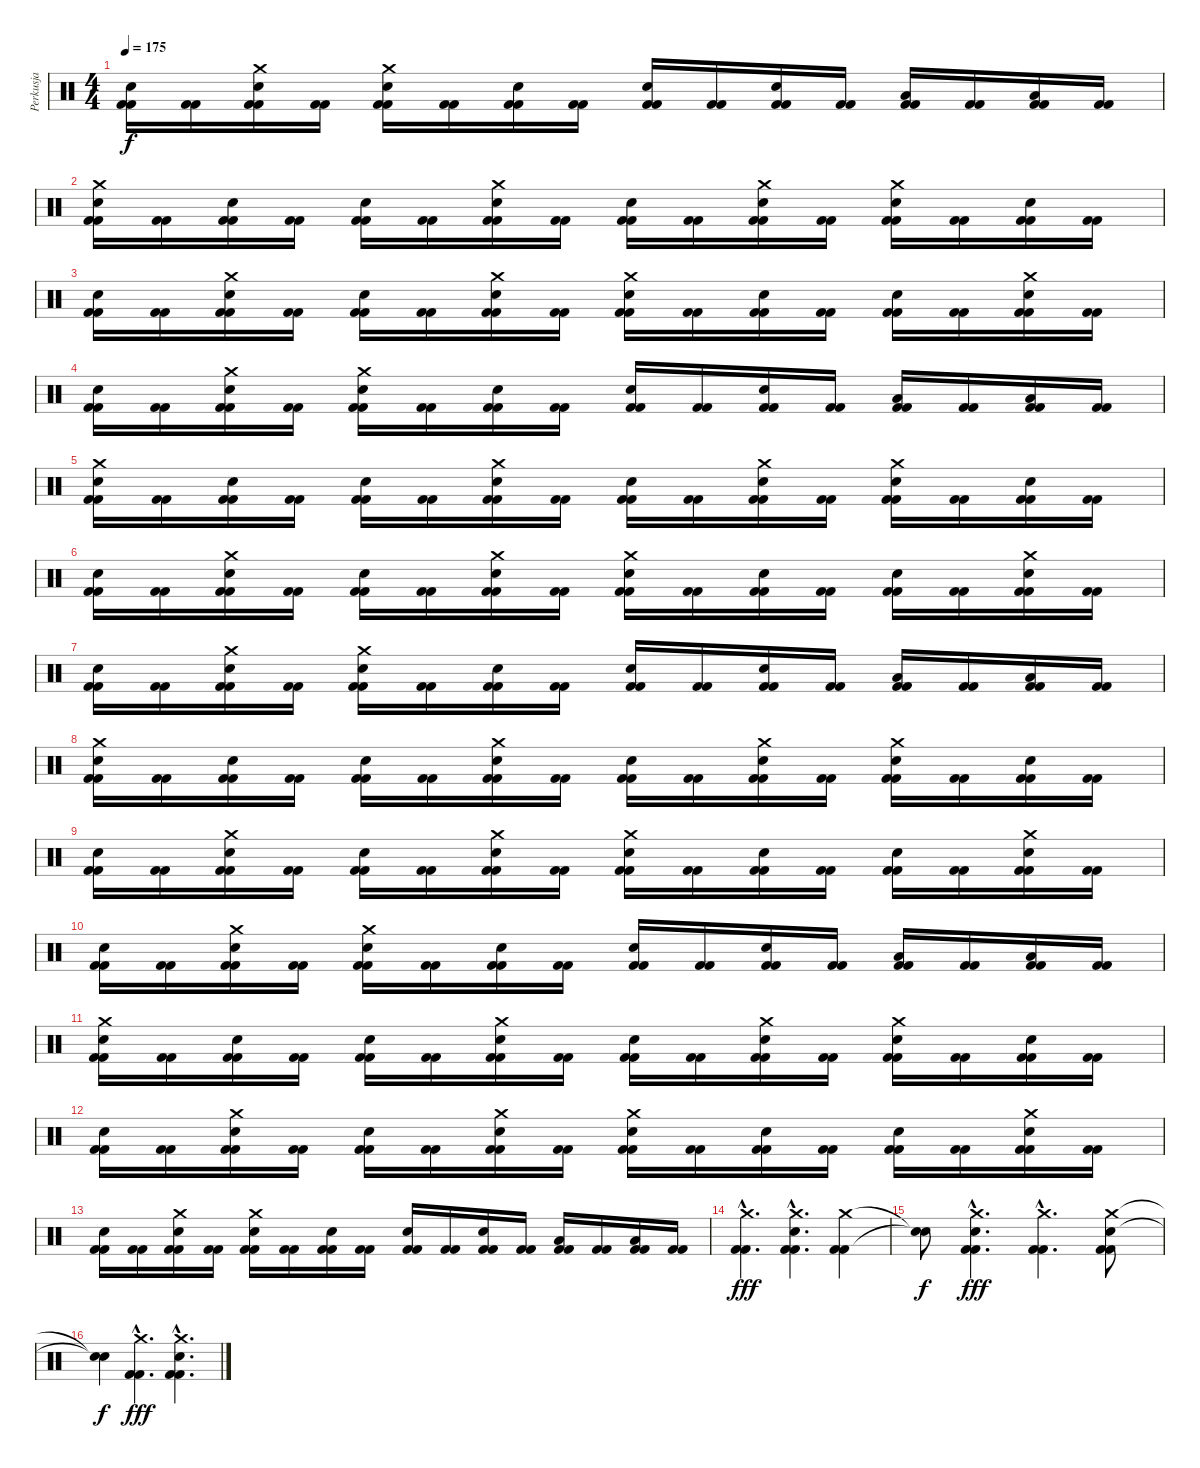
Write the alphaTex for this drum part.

\track ("Perkusja" "Perkusja") {instrument percussion}
\staff {score}
\articulation defaults
\ts (4 4)
\tempo 175
\clef neutral
\ks c
("Snare (hit) 2" "Kick (hit) 2" "Kick (hit) 2").16{dy f} ("Kick (hit) 2" "Kick (hit) 2").16 ("Crash medium (hit)" "Snare (hit) 2" "Kick (hit) 2" "Kick (hit) 2").16 ("Kick (hit) 2" "Kick (hit) 2").16 ("Crash medium (hit)" "Snare (hit) 2" "Kick (hit) 2" "Kick (hit) 2").16 ("Kick (hit) 2" "Kick (hit) 2").16 ("Snare (hit) 2" "Kick (hit) 2" "Kick (hit) 2").16 ("Kick (hit) 2" "Kick (hit) 2").16 ("Electric Snare (hit)" "Kick (hit) 2" "Kick (hit) 2").16 ("Kick (hit) 2" "Kick (hit) 2").16 ("Electric Snare (hit)" "Kick (hit) 2" "Kick (hit) 2").16 ("Kick (hit) 2" "Kick (hit) 2").16 ("Low Tom (hit)" "Kick (hit) 2" "Kick (hit) 2").16 ("Kick (hit) 2" "Kick (hit) 2").16 ("Low Tom (hit)" "Kick (hit) 2" "Kick (hit) 2").16 ("Kick (hit) 2" "Kick (hit) 2").16 |
("Crash medium (hit)" "Snare (hit) 2" "Kick (hit) 2" "Kick (hit) 2").16 ("Kick (hit) 2" "Kick (hit) 2").16 ("Snare (hit) 2" "Kick (hit) 2" "Kick (hit) 2").16 ("Kick (hit) 2" "Kick (hit) 2").16 ("Snare (hit) 2" "Kick (hit) 2" "Kick (hit) 2").16 ("Kick (hit) 2" "Kick (hit) 2").16 ("Crash medium (hit)" "Snare (hit) 2" "Kick (hit) 2" "Kick (hit) 2").16 ("Kick (hit) 2" "Kick (hit) 2").16 ("Snare (hit) 2" "Kick (hit) 2" "Kick (hit) 2").16 ("Kick (hit) 2" "Kick (hit) 2").16 ("Crash medium (hit)" "Snare (hit) 2" "Kick (hit) 2" "Kick (hit) 2").16 ("Kick (hit) 2" "Kick (hit) 2").16 ("Crash medium (hit)" "Snare (hit) 2" "Kick (hit) 2" "Kick (hit) 2").16 ("Kick (hit) 2" "Kick (hit) 2").16 ("Snare (hit) 2" "Kick (hit) 2" "Kick (hit) 2").16 ("Kick (hit) 2" "Kick (hit) 2").16 |
("Snare (hit) 2" "Kick (hit) 2" "Kick (hit) 2").16 ("Kick (hit) 2" "Kick (hit) 2").16 ("Crash medium (hit)" "Snare (hit) 2" "Kick (hit) 2" "Kick (hit) 2").16 ("Kick (hit) 2" "Kick (hit) 2").16 ("Snare (hit) 2" "Kick (hit) 2" "Kick (hit) 2").16 ("Kick (hit) 2" "Kick (hit) 2").16 ("Crash medium (hit)" "Snare (hit) 2" "Kick (hit) 2" "Kick (hit) 2").16 ("Kick (hit) 2" "Kick (hit) 2").16 ("Crash medium (hit)" "Snare (hit) 2" "Kick (hit) 2" "Kick (hit) 2").16 ("Kick (hit) 2" "Kick (hit) 2").16 ("Snare (hit) 2" "Kick (hit) 2" "Kick (hit) 2").16 ("Kick (hit) 2" "Kick (hit) 2").16 ("Snare (hit) 2" "Kick (hit) 2" "Kick (hit) 2").16 ("Kick (hit) 2" "Kick (hit) 2").16 ("Crash medium (hit)" "Snare (hit) 2" "Kick (hit) 2" "Kick (hit) 2").16 ("Kick (hit) 2" "Kick (hit) 2").16 |
("Snare (hit) 2" "Kick (hit) 2" "Kick (hit) 2").16 ("Kick (hit) 2" "Kick (hit) 2").16 ("Crash medium (hit)" "Snare (hit) 2" "Kick (hit) 2" "Kick (hit) 2").16 ("Kick (hit) 2" "Kick (hit) 2").16 ("Crash medium (hit)" "Snare (hit) 2" "Kick (hit) 2" "Kick (hit) 2").16 ("Kick (hit) 2" "Kick (hit) 2").16 ("Snare (hit) 2" "Kick (hit) 2" "Kick (hit) 2").16 ("Kick (hit) 2" "Kick (hit) 2").16 ("Electric Snare (hit)" "Kick (hit) 2" "Kick (hit) 2").16 ("Kick (hit) 2" "Kick (hit) 2").16 ("Electric Snare (hit)" "Kick (hit) 2" "Kick (hit) 2").16 ("Kick (hit) 2" "Kick (hit) 2").16 ("Low Tom (hit)" "Kick (hit) 2" "Kick (hit) 2").16 ("Kick (hit) 2" "Kick (hit) 2").16 ("Low Tom (hit)" "Kick (hit) 2" "Kick (hit) 2").16 ("Kick (hit) 2" "Kick (hit) 2").16 |
("Crash medium (hit)" "Snare (hit) 2" "Kick (hit) 2" "Kick (hit) 2").16 ("Kick (hit) 2" "Kick (hit) 2").16 ("Snare (hit) 2" "Kick (hit) 2" "Kick (hit) 2").16 ("Kick (hit) 2" "Kick (hit) 2").16 ("Snare (hit) 2" "Kick (hit) 2" "Kick (hit) 2").16 ("Kick (hit) 2" "Kick (hit) 2").16 ("Crash medium (hit)" "Snare (hit) 2" "Kick (hit) 2" "Kick (hit) 2").16 ("Kick (hit) 2" "Kick (hit) 2").16 ("Snare (hit) 2" "Kick (hit) 2" "Kick (hit) 2").16 ("Kick (hit) 2" "Kick (hit) 2").16 ("Crash medium (hit)" "Snare (hit) 2" "Kick (hit) 2" "Kick (hit) 2").16 ("Kick (hit) 2" "Kick (hit) 2").16 ("Crash medium (hit)" "Snare (hit) 2" "Kick (hit) 2" "Kick (hit) 2").16 ("Kick (hit) 2" "Kick (hit) 2").16 ("Snare (hit) 2" "Kick (hit) 2" "Kick (hit) 2").16 ("Kick (hit) 2" "Kick (hit) 2").16 |
("Snare (hit) 2" "Kick (hit) 2" "Kick (hit) 2").16 ("Kick (hit) 2" "Kick (hit) 2").16 ("Crash medium (hit)" "Snare (hit) 2" "Kick (hit) 2" "Kick (hit) 2").16 ("Kick (hit) 2" "Kick (hit) 2").16 ("Snare (hit) 2" "Kick (hit) 2" "Kick (hit) 2").16 ("Kick (hit) 2" "Kick (hit) 2").16 ("Crash medium (hit)" "Snare (hit) 2" "Kick (hit) 2" "Kick (hit) 2").16 ("Kick (hit) 2" "Kick (hit) 2").16 ("Crash medium (hit)" "Snare (hit) 2" "Kick (hit) 2" "Kick (hit) 2").16 ("Kick (hit) 2" "Kick (hit) 2").16 ("Snare (hit) 2" "Kick (hit) 2" "Kick (hit) 2").16 ("Kick (hit) 2" "Kick (hit) 2").16 ("Snare (hit) 2" "Kick (hit) 2" "Kick (hit) 2").16 ("Kick (hit) 2" "Kick (hit) 2").16 ("Crash medium (hit)" "Snare (hit) 2" "Kick (hit) 2" "Kick (hit) 2").16 ("Kick (hit) 2" "Kick (hit) 2").16 |
("Snare (hit) 2" "Kick (hit) 2" "Kick (hit) 2").16 ("Kick (hit) 2" "Kick (hit) 2").16 ("Crash medium (hit)" "Snare (hit) 2" "Kick (hit) 2" "Kick (hit) 2").16 ("Kick (hit) 2" "Kick (hit) 2").16 ("Crash medium (hit)" "Snare (hit) 2" "Kick (hit) 2" "Kick (hit) 2").16 ("Kick (hit) 2" "Kick (hit) 2").16 ("Snare (hit) 2" "Kick (hit) 2" "Kick (hit) 2").16 ("Kick (hit) 2" "Kick (hit) 2").16 ("Electric Snare (hit)" "Kick (hit) 2" "Kick (hit) 2").16 ("Kick (hit) 2" "Kick (hit) 2").16 ("Electric Snare (hit)" "Kick (hit) 2" "Kick (hit) 2").16 ("Kick (hit) 2" "Kick (hit) 2").16 ("Low Tom (hit)" "Kick (hit) 2" "Kick (hit) 2").16 ("Kick (hit) 2" "Kick (hit) 2").16 ("Low Tom (hit)" "Kick (hit) 2" "Kick (hit) 2").16 ("Kick (hit) 2" "Kick (hit) 2").16 |
("Crash medium (hit)" "Snare (hit) 2" "Kick (hit) 2" "Kick (hit) 2").16 ("Kick (hit) 2" "Kick (hit) 2").16 ("Snare (hit) 2" "Kick (hit) 2" "Kick (hit) 2").16 ("Kick (hit) 2" "Kick (hit) 2").16 ("Snare (hit) 2" "Kick (hit) 2" "Kick (hit) 2").16 ("Kick (hit) 2" "Kick (hit) 2").16 ("Crash medium (hit)" "Snare (hit) 2" "Kick (hit) 2" "Kick (hit) 2").16 ("Kick (hit) 2" "Kick (hit) 2").16 ("Snare (hit) 2" "Kick (hit) 2" "Kick (hit) 2").16 ("Kick (hit) 2" "Kick (hit) 2").16 ("Crash medium (hit)" "Snare (hit) 2" "Kick (hit) 2" "Kick (hit) 2").16 ("Kick (hit) 2" "Kick (hit) 2").16 ("Crash medium (hit)" "Snare (hit) 2" "Kick (hit) 2" "Kick (hit) 2").16 ("Kick (hit) 2" "Kick (hit) 2").16 ("Snare (hit) 2" "Kick (hit) 2" "Kick (hit) 2").16 ("Kick (hit) 2" "Kick (hit) 2").16 |
("Snare (hit) 2" "Kick (hit) 2" "Kick (hit) 2").16 ("Kick (hit) 2" "Kick (hit) 2").16 ("Crash medium (hit)" "Snare (hit) 2" "Kick (hit) 2" "Kick (hit) 2").16 ("Kick (hit) 2" "Kick (hit) 2").16 ("Snare (hit) 2" "Kick (hit) 2" "Kick (hit) 2").16 ("Kick (hit) 2" "Kick (hit) 2").16 ("Crash medium (hit)" "Snare (hit) 2" "Kick (hit) 2" "Kick (hit) 2").16 ("Kick (hit) 2" "Kick (hit) 2").16 ("Crash medium (hit)" "Snare (hit) 2" "Kick (hit) 2" "Kick (hit) 2").16 ("Kick (hit) 2" "Kick (hit) 2").16 ("Snare (hit) 2" "Kick (hit) 2" "Kick (hit) 2").16 ("Kick (hit) 2" "Kick (hit) 2").16 ("Snare (hit) 2" "Kick (hit) 2" "Kick (hit) 2").16 ("Kick (hit) 2" "Kick (hit) 2").16 ("Crash medium (hit)" "Snare (hit) 2" "Kick (hit) 2" "Kick (hit) 2").16 ("Kick (hit) 2" "Kick (hit) 2").16 |
("Snare (hit) 2" "Kick (hit) 2" "Kick (hit) 2").16 ("Kick (hit) 2" "Kick (hit) 2").16 ("Crash medium (hit)" "Snare (hit) 2" "Kick (hit) 2" "Kick (hit) 2").16 ("Kick (hit) 2" "Kick (hit) 2").16 ("Crash medium (hit)" "Snare (hit) 2" "Kick (hit) 2" "Kick (hit) 2").16 ("Kick (hit) 2" "Kick (hit) 2").16 ("Snare (hit) 2" "Kick (hit) 2" "Kick (hit) 2").16 ("Kick (hit) 2" "Kick (hit) 2").16 ("Electric Snare (hit)" "Kick (hit) 2" "Kick (hit) 2").16 ("Kick (hit) 2" "Kick (hit) 2").16 ("Electric Snare (hit)" "Kick (hit) 2" "Kick (hit) 2").16 ("Kick (hit) 2" "Kick (hit) 2").16 ("Low Tom (hit)" "Kick (hit) 2" "Kick (hit) 2").16 ("Kick (hit) 2" "Kick (hit) 2").16 ("Low Tom (hit)" "Kick (hit) 2" "Kick (hit) 2").16 ("Kick (hit) 2" "Kick (hit) 2").16 |
("Crash medium (hit)" "Snare (hit) 2" "Kick (hit) 2" "Kick (hit) 2").16 ("Kick (hit) 2" "Kick (hit) 2").16 ("Snare (hit) 2" "Kick (hit) 2" "Kick (hit) 2").16 ("Kick (hit) 2" "Kick (hit) 2").16 ("Snare (hit) 2" "Kick (hit) 2" "Kick (hit) 2").16 ("Kick (hit) 2" "Kick (hit) 2").16 ("Crash medium (hit)" "Snare (hit) 2" "Kick (hit) 2" "Kick (hit) 2").16 ("Kick (hit) 2" "Kick (hit) 2").16 ("Snare (hit) 2" "Kick (hit) 2" "Kick (hit) 2").16 ("Kick (hit) 2" "Kick (hit) 2").16 ("Crash medium (hit)" "Snare (hit) 2" "Kick (hit) 2" "Kick (hit) 2").16 ("Kick (hit) 2" "Kick (hit) 2").16 ("Crash medium (hit)" "Snare (hit) 2" "Kick (hit) 2" "Kick (hit) 2").16 ("Kick (hit) 2" "Kick (hit) 2").16 ("Snare (hit) 2" "Kick (hit) 2" "Kick (hit) 2").16 ("Kick (hit) 2" "Kick (hit) 2").16 |
("Snare (hit) 2" "Kick (hit) 2" "Kick (hit) 2").16 ("Kick (hit) 2" "Kick (hit) 2").16 ("Crash medium (hit)" "Snare (hit) 2" "Kick (hit) 2" "Kick (hit) 2").16 ("Kick (hit) 2" "Kick (hit) 2").16 ("Snare (hit) 2" "Kick (hit) 2" "Kick (hit) 2").16 ("Kick (hit) 2" "Kick (hit) 2").16 ("Crash medium (hit)" "Snare (hit) 2" "Kick (hit) 2" "Kick (hit) 2").16 ("Kick (hit) 2" "Kick (hit) 2").16 ("Crash medium (hit)" "Snare (hit) 2" "Kick (hit) 2" "Kick (hit) 2").16 ("Kick (hit) 2" "Kick (hit) 2").16 ("Snare (hit) 2" "Kick (hit) 2" "Kick (hit) 2").16 ("Kick (hit) 2" "Kick (hit) 2").16 ("Snare (hit) 2" "Kick (hit) 2" "Kick (hit) 2").16 ("Kick (hit) 2" "Kick (hit) 2").16 ("Crash medium (hit)" "Snare (hit) 2" "Kick (hit) 2" "Kick (hit) 2").16 ("Kick (hit) 2" "Kick (hit) 2").16 |
("Snare (hit) 2" "Kick (hit) 2" "Kick (hit) 2").16 ("Kick (hit) 2" "Kick (hit) 2").16 ("Crash medium (hit)" "Snare (hit) 2" "Kick (hit) 2" "Kick (hit) 2").16 ("Kick (hit) 2" "Kick (hit) 2").16 ("Crash medium (hit)" "Snare (hit) 2" "Kick (hit) 2" "Kick (hit) 2").16 ("Kick (hit) 2" "Kick (hit) 2").16 ("Snare (hit) 2" "Kick (hit) 2" "Kick (hit) 2").16 ("Kick (hit) 2" "Kick (hit) 2").16 ("Electric Snare (hit)" "Kick (hit) 2" "Kick (hit) 2").16 ("Kick (hit) 2" "Kick (hit) 2").16 ("Electric Snare (hit)" "Kick (hit) 2" "Kick (hit) 2").16 ("Kick (hit) 2" "Kick (hit) 2").16 ("Low Tom (hit)" "Kick (hit) 2" "Kick (hit) 2").16 ("Kick (hit) 2" "Kick (hit) 2").16 ("Low Tom (hit)" "Kick (hit) 2" "Kick (hit) 2").16 ("Kick (hit) 2" "Kick (hit) 2").16 |
("Crash medium (hit)"{hac} "Kick (hit) 2"{tr (36 16) hac} "Kick (hit) 2"{hac}).4{d dy fff} ("Crash medium (hit)"{hac} "Snare (hit) 2"{hac} "Kick (hit) 2"{tr (36 16) hac} "Kick (hit) 2"{hac}).4{d} ("Crash medium (hit)" "Kick (hit) 2"{tr (36 16)} "Kick (hit) 2").4 |
("Snare (hit)"{t} "Snare (hit)"{t}).8{dy f} ("Crash medium (hit)"{hac} "Snare (hit) 2"{hac} "Kick (hit) 2"{tr (36 16) hac} "Kick (hit) 2"{hac}).4{d dy fff} ("Crash medium (hit)"{hac} "Kick (hit) 2"{tr (36 16) hac} "Kick (hit) 2"{hac}).4{d} ("Crash medium (hit)" "Snare (hit) 2" "Kick (hit) 2"{tr (36 16)} "Kick (hit) 2").8 |
("Snare (hit)"{t} "Snare (hit)"{t}).4{dy f} ("Crash medium (hit)"{hac} "Kick (hit) 2"{tr (36 16) hac} "Kick (hit) 2"{hac}).4{d dy fff} ("Crash medium (hit)"{hac} "Snare (hit) 2"{hac} "Kick (hit) 2"{tr (36 16) hac} "Kick (hit) 2"{hac}).4{d}
